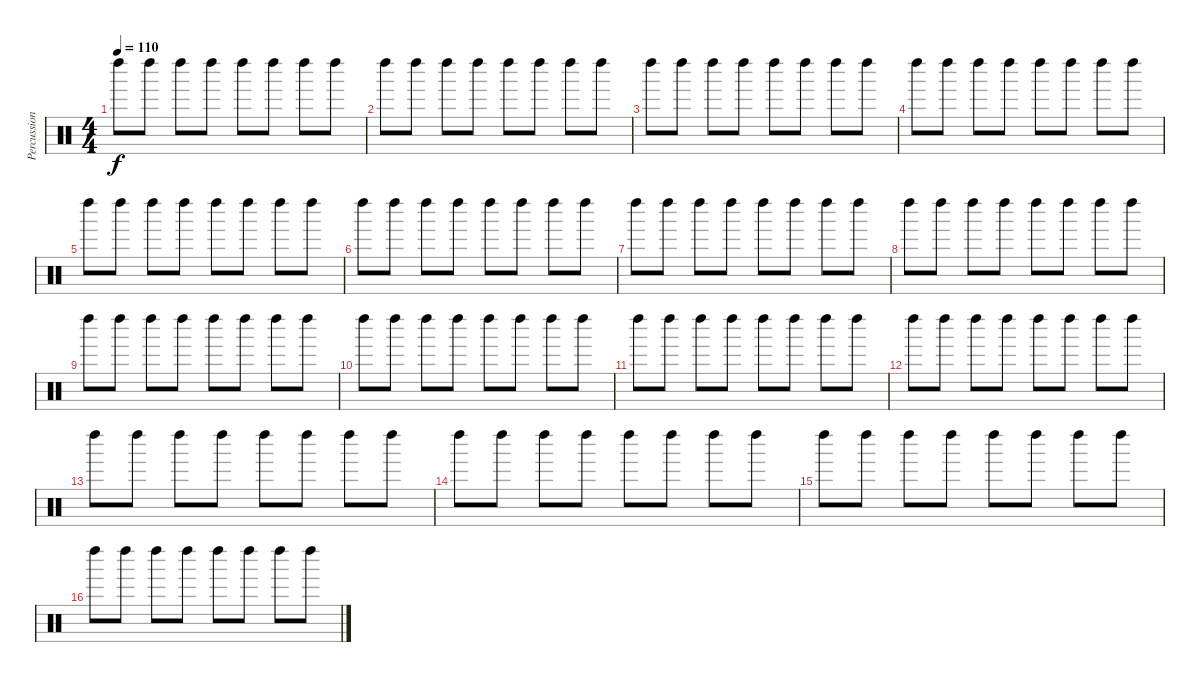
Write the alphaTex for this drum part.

\track ("Percussions" "Percussion") {instrument percussion}
\staff {score}
\articulation defaults
\ts (4 4)
\tempo 110
\clef neutral
\ks c "Left Maraca (hit)".8{dy f} "Left Maraca (hit)".8 "Left Maraca (hit)".8 "Left Maraca (hit)".8 "Left Maraca (hit)".8 "Left Maraca (hit)".8 "Left Maraca (hit)".8 "Left Maraca (hit)".8
|
"Left Maraca (hit)".8 "Left Maraca (hit)".8 "Left Maraca (hit)".8 "Left Maraca (hit)".8 "Left Maraca (hit)".8 "Left Maraca (hit)".8 "Left Maraca (hit)".8 "Left Maraca (hit)".8 |
"Left Maraca (hit)".8 "Left Maraca (hit)".8 "Left Maraca (hit)".8 "Left Maraca (hit)".8 "Left Maraca (hit)".8 "Left Maraca (hit)".8 "Left Maraca (hit)".8 "Left Maraca (hit)".8 |
"Left Maraca (hit)".8 "Left Maraca (hit)".8 "Left Maraca (hit)".8 "Left Maraca (hit)".8 "Left Maraca (hit)".8 "Left Maraca (hit)".8 "Left Maraca (hit)".8 "Left Maraca (hit)".8 |
"Left Maraca (hit)".8 "Left Maraca (hit)".8 "Left Maraca (hit)".8 "Left Maraca (hit)".8 "Left Maraca (hit)".8 "Left Maraca (hit)".8 "Left Maraca (hit)".8 "Left Maraca (hit)".8 |
"Left Maraca (hit)".8 "Left Maraca (hit)".8 "Left Maraca (hit)".8 "Left Maraca (hit)".8 "Left Maraca (hit)".8 "Left Maraca (hit)".8 "Left Maraca (hit)".8 "Left Maraca (hit)".8 |
"Left Maraca (hit)".8 "Left Maraca (hit)".8 "Left Maraca (hit)".8 "Left Maraca (hit)".8 "Left Maraca (hit)".8 "Left Maraca (hit)".8 "Left Maraca (hit)".8 "Left Maraca (hit)".8 |
"Left Maraca (hit)".8 "Left Maraca (hit)".8 "Left Maraca (hit)".8 "Left Maraca (hit)".8 "Left Maraca (hit)".8 "Left Maraca (hit)".8 "Left Maraca (hit)".8 "Left Maraca (hit)".8 |
"Left Maraca (hit)".8 "Left Maraca (hit)".8 "Left Maraca (hit)".8 "Left Maraca (hit)".8 "Left Maraca (hit)".8 "Left Maraca (hit)".8 "Left Maraca (hit)".8 "Left Maraca (hit)".8 |
"Left Maraca (hit)".8 "Left Maraca (hit)".8 "Left Maraca (hit)".8 "Left Maraca (hit)".8 "Left Maraca (hit)".8 "Left Maraca (hit)".8 "Left Maraca (hit)".8 "Left Maraca (hit)".8 |
"Left Maraca (hit)".8 "Left Maraca (hit)".8 "Left Maraca (hit)".8 "Left Maraca (hit)".8 "Left Maraca (hit)".8 "Left Maraca (hit)".8 "Left Maraca (hit)".8 "Left Maraca (hit)".8 |
"Left Maraca (hit)".8 "Left Maraca (hit)".8 "Left Maraca (hit)".8 "Left Maraca (hit)".8 "Left Maraca (hit)".8 "Left Maraca (hit)".8 "Left Maraca (hit)".8 "Left Maraca (hit)".8 |
"Left Maraca (hit)".8 "Left Maraca (hit)".8 "Left Maraca (hit)".8 "Left Maraca (hit)".8 "Left Maraca (hit)".8 "Left Maraca (hit)".8 "Left Maraca (hit)".8 "Left Maraca (hit)".8 |
"Left Maraca (hit)".8 "Left Maraca (hit)".8 "Left Maraca (hit)".8 "Left Maraca (hit)".8 "Left Maraca (hit)".8 "Left Maraca (hit)".8 "Left Maraca (hit)".8 "Left Maraca (hit)".8 |
"Left Maraca (hit)".8 "Left Maraca (hit)".8 "Left Maraca (hit)".8 "Left Maraca (hit)".8 "Left Maraca (hit)".8 "Left Maraca (hit)".8 "Left Maraca (hit)".8 "Left Maraca (hit)".8 |
"Left Maraca (hit)".8 "Left Maraca (hit)".8 "Left Maraca (hit)".8 "Left Maraca (hit)".8 "Left Maraca (hit)".8 "Left Maraca (hit)".8 "Left Maraca (hit)".8 "Left Maraca (hit)".8
